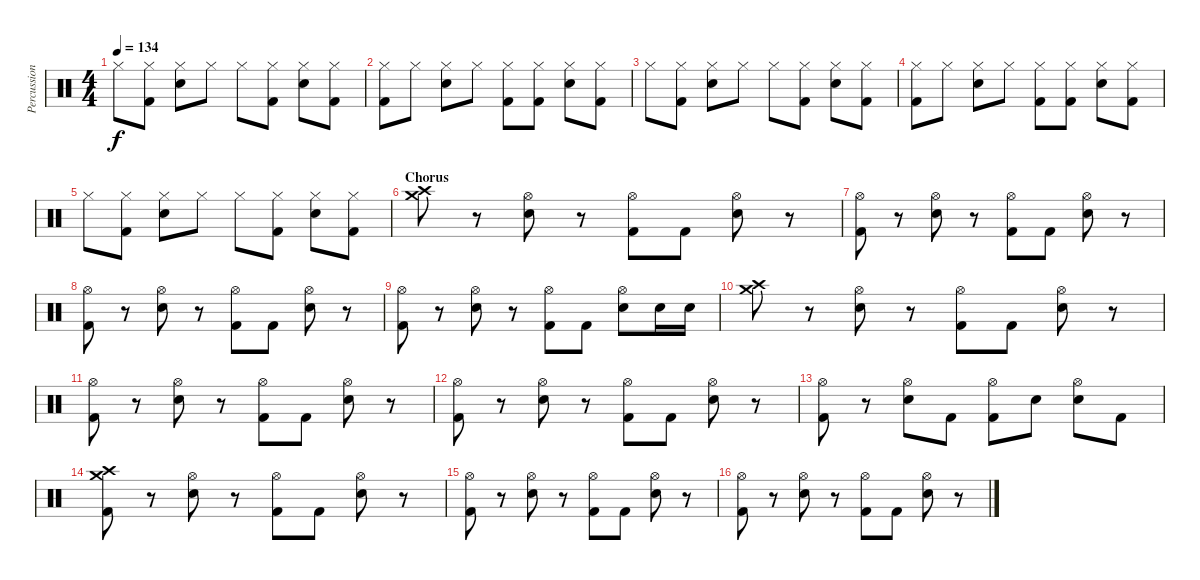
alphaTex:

\track ("Percussion" "Percussion") {instrument percussion}
\staff {score}
\articulation defaults
\ts (4 4)
\tempo 134
\clef neutral
\ks c "Hi-Hat (closed)".8{dy f}
("Hi-Hat (closed)" "Kick (hit) 2").8 ("Hi-Hat (closed)" "Snare (hit) 2").8 "Hi-Hat (closed)".8 "Hi-Hat (closed)".8 ("Hi-Hat (closed)" "Kick (hit) 2").8 ("Hi-Hat (closed)" "Snare (hit) 2").8 ("Hi-Hat (closed)" "Kick (hit) 2").8 |
("Hi-Hat (closed)" "Kick (hit) 2").8 "Hi-Hat (closed)".8 ("Hi-Hat (closed)" "Snare (hit) 2").8 "Hi-Hat (closed)".8 ("Hi-Hat (closed)" "Kick (hit) 2").8 ("Hi-Hat (closed)" "Kick (hit) 2").8 ("Hi-Hat (closed)" "Snare (hit) 2").8 ("Hi-Hat (closed)" "Kick (hit) 2").8 |
"Hi-Hat (closed)".8 ("Hi-Hat (closed)" "Kick (hit) 2").8 ("Hi-Hat (closed)" "Snare (hit) 2").8 "Hi-Hat (closed)".8 "Hi-Hat (closed)".8 ("Hi-Hat (closed)" "Kick (hit) 2").8 ("Hi-Hat (closed)" "Snare (hit) 2").8 ("Hi-Hat (closed)" "Kick (hit) 2").8 |
("Hi-Hat (closed)" "Kick (hit) 2").8 "Hi-Hat (closed)".8 ("Hi-Hat (closed)" "Snare (hit) 2").8 "Hi-Hat (closed)".8 ("Hi-Hat (closed)" "Kick (hit) 2").8 ("Hi-Hat (closed)" "Kick (hit) 2").8 ("Hi-Hat (closed)" "Snare (hit) 2").8 ("Hi-Hat (closed)" "Kick (hit) 2").8 |
"Hi-Hat (closed)".8 ("Hi-Hat (closed)" "Kick (hit) 2").8 ("Hi-Hat (closed)" "Snare (hit) 2").8 "Hi-Hat (closed)".8 "Hi-Hat (closed)".8 ("Hi-Hat (closed)" "Kick (hit) 2").8 ("Hi-Hat (closed)" "Snare (hit) 2").8 ("Hi-Hat (closed)" "Kick (hit) 2").8 |
\section ("" "Chorus")
("Crash high (hit)" "Crash medium (hit)").8 r.8 ("Hi-Hat (open)" "Snare (hit) 2").8 r.8 ("Hi-Hat (open)" "Kick (hit) 2").8 "Kick (hit) 2".8 ("Hi-Hat (open)" "Snare (hit) 2").8 r.8 |
("Hi-Hat (open)" "Kick (hit) 2").8 r.8 ("Hi-Hat (open)" "Snare (hit) 2").8 r.8 ("Hi-Hat (open)" "Kick (hit) 2").8 "Kick (hit) 2".8 ("Hi-Hat (open)" "Snare (hit) 2").8 r.8 |
("Hi-Hat (open)" "Kick (hit) 2").8 r.8 ("Hi-Hat (open)" "Snare (hit) 2").8 r.8 ("Hi-Hat (open)" "Kick (hit) 2").8 "Kick (hit) 2".8 ("Hi-Hat (open)" "Snare (hit) 2").8 r.8 |
("Hi-Hat (open)" "Kick (hit) 2").8 r.8 ("Hi-Hat (open)" "Snare (hit) 2").8 r.8 ("Hi-Hat (open)" "Kick (hit) 2").8 "Kick (hit) 2".8 ("Hi-Hat (open)" "Snare (hit) 2").8 "Snare (hit) 2".16 "Snare (hit) 2".16 |
("Crash high (hit)" "Crash medium (hit)").8 r.8 ("Hi-Hat (open)" "Snare (hit) 2").8 r.8 ("Hi-Hat (open)" "Kick (hit) 2").8 "Kick (hit) 2".8 ("Hi-Hat (open)" "Snare (hit) 2").8 r.8 |
("Hi-Hat (open)" "Kick (hit) 2").8 r.8 ("Hi-Hat (open)" "Snare (hit) 2").8 r.8 ("Hi-Hat (open)" "Kick (hit) 2").8 "Kick (hit) 2".8 ("Hi-Hat (open)" "Snare (hit) 2").8 r.8 |
("Hi-Hat (open)" "Kick (hit) 2").8 r.8 ("Hi-Hat (open)" "Snare (hit) 2").8 r.8 ("Hi-Hat (open)" "Kick (hit) 2").8 "Kick (hit) 2".8 ("Hi-Hat (open)" "Snare (hit) 2").8 r.8 |
("Hi-Hat (open)" "Kick (hit) 2").8 r.8 ("Hi-Hat (open)" "Snare (hit) 2").8 "Kick (hit) 2".8 ("Hi-Hat (open)" "Kick (hit) 2").8 "Snare (hit) 2".8 ("Hi-Hat (open)" "Snare (hit) 2").8 "Kick (hit) 2".8 |
("Crash high (hit)" "Crash medium (hit)" "Kick (hit) 2").8 r.8 ("Hi-Hat (open)" "Snare (hit) 2").8 r.8 ("Hi-Hat (open)" "Kick (hit) 2").8 "Kick (hit) 2".8 ("Hi-Hat (open)" "Snare (hit) 2").8 r.8 |
("Hi-Hat (open)" "Kick (hit) 2").8 r.8 ("Hi-Hat (open)" "Snare (hit) 2").8 r.8 ("Hi-Hat (open)" "Kick (hit) 2").8 "Kick (hit) 2".8 ("Hi-Hat (open)" "Snare (hit) 2").8 r.8 |
("Hi-Hat (open)" "Kick (hit) 2").8 r.8 ("Hi-Hat (open)" "Snare (hit) 2").8 r.8 ("Hi-Hat (open)" "Kick (hit) 2").8 "Kick (hit) 2".8 ("Hi-Hat (open)" "Snare (hit) 2").8 r.8
